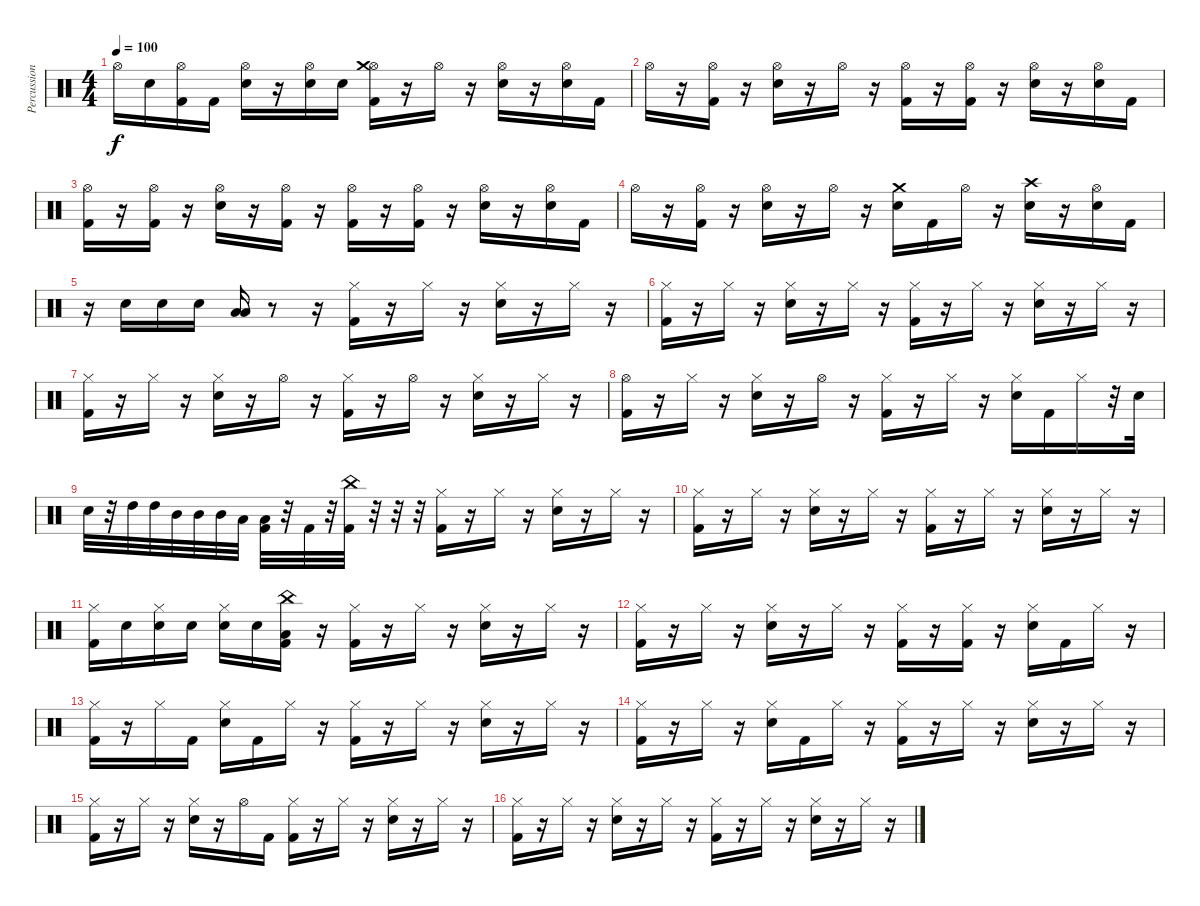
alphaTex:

\track ("Percussion" "Percussion") {instrument percussion}
\staff {score}
\articulation defaults
\ts (4 4)
\tempo 100
\clef neutral
\ks c "Hi-Hat (open)".16{dy f} "Snare (hit) 2".16
("Hi-Hat (open)" "Kick (hit) 2").16 "Kick (hit) 2".16 ("Hi-Hat (open)" "Snare (hit) 2").16 r.16 ("Hi-Hat (open)" "Snare (hit) 2").16 "Snare (hit) 2".16 ("Hi-Hat (open)" "Crash medium (hit)" "Kick (hit) 2").16 r.16 "Hi-Hat (open)".16 r.16 ("Hi-Hat (open)" "Snare (hit) 2").16 r.16 ("Hi-Hat (open)" "Snare (hit) 2").16 "Kick (hit) 2".16 |
"Hi-Hat (open)".16 r.16 ("Hi-Hat (open)" "Kick (hit) 2").16 r.16 ("Hi-Hat (open)" "Snare (hit) 2").16 r.16 "Hi-Hat (open)".16 r.16 ("Hi-Hat (open)" "Kick (hit) 2").16 r.16 ("Hi-Hat (open)" "Kick (hit) 2").16 r.16 ("Hi-Hat (open)" "Snare (hit) 2").16 r.16 ("Hi-Hat (open)" "Snare (hit) 2").16 "Kick (hit) 2".16 |
("Hi-Hat (open)" "Kick (hit) 2").16 r.16 ("Hi-Hat (open)" "Kick (hit) 2").16 r.16 ("Hi-Hat (open)" "Snare (hit) 2").16 r.16 ("Hi-Hat (open)" "Kick (hit) 2").16 r.16 ("Hi-Hat (open)" "Kick (hit) 2").16 r.16 ("Hi-Hat (open)" "Kick (hit) 2").16 r.16 ("Hi-Hat (open)" "Snare (hit) 2").16 r.16 ("Hi-Hat (open)" "Snare (hit) 2").16 "Kick (hit) 2".16 |
"Hi-Hat (open)".16 r.16 ("Hi-Hat (open)" "Kick (hit) 2").16 r.16 ("Hi-Hat (open)" "Snare (hit) 2").16 r.16 "Hi-Hat (open)".16 r.16 ("Crash medium (hit)" "Snare (hit) 2").16 "Kick (hit) 2".16 "Hi-Hat (open)".16 r.16 ("Crash high (hit)" "Snare (hit) 2").16 r.16 ("Hi-Hat (open)" "Snare (hit) 2").16 "Kick (hit) 2".16 |
r.16 "Snare (hit) 2".16 "Snare (hit) 2".16 "Snare (hit) 2".16 ("Low Tom (hit)" "Low Tom (hit)").16 r.8 r.16 ("Hi-Hat (closed)" "Kick (hit) 2").16 r.16 "Hi-Hat (closed)".16 r.16 ("Hi-Hat (closed)" "Snare (hit) 2").16 r.16 "Hi-Hat (closed)".16 r.16 |
("Hi-Hat (closed)" "Kick (hit) 2").16 r.16 "Hi-Hat (closed)".16 r.16 ("Hi-Hat (closed)" "Snare (hit) 2").16 r.16 "Hi-Hat (closed)".16 r.16 ("Hi-Hat (closed)" "Kick (hit) 2").16 r.16 "Hi-Hat (closed)".16 r.16 ("Hi-Hat (closed)" "Snare (hit) 2").16 r.16 "Hi-Hat (closed)".16 r.16 |
("Hi-Hat (closed)" "Kick (hit) 2").16 r.16 "Hi-Hat (closed)".16 r.16 ("Hi-Hat (closed)" "Snare (hit) 2").16 r.16 "Hi-Hat (open)".16 r.16 ("Hi-Hat (closed)" "Kick (hit) 2").16 r.16 "Hi-Hat (open)".16 r.16 ("Hi-Hat (closed)" "Snare (hit) 2").16 r.16 "Hi-Hat (closed)".16 r.16 |
("Hi-Hat (open)" "Kick (hit) 2").16 r.16 "Hi-Hat (closed)".16 r.16 ("Hi-Hat (closed)" "Snare (hit) 2").16 r.16 "Hi-Hat (open)".16 r.16 ("Hi-Hat (closed)" "Kick (hit) 2").16 r.16 "Hi-Hat (closed)".16 r.16 ("Hi-Hat (closed)" "Snare (hit) 2").16 "Kick (hit) 2".16 "Hi-Hat (closed)".16 r.32 "Snare (hit) 2".32 |
"Snare (hit) 2".32 r.32 "High Tom (hit)".32 "High Tom (hit)".32 "Mid Tom (hit)".32 "Mid Tom (hit)".32 "Mid Tom (hit)".32 "Low Tom (hit)".32 ("Low Tom (hit)" "Kick (hit) 2").32 r.32 "Kick (hit) 2".32 r.32 ("China (hit)" "Kick (hit) 2").32 r.32 r.32 r.32 ("Hi-Hat (closed)" "Kick (hit) 2").16 r.16 "Hi-Hat (closed)".16 r.16 ("Hi-Hat (closed)" "Snare (hit) 2").16 r.16 "Hi-Hat (closed)".16 r.16 |
("Hi-Hat (closed)" "Kick (hit) 2").16 r.16 "Hi-Hat (closed)".16 r.16 ("Hi-Hat (closed)" "Snare (hit) 2").16 r.16 "Hi-Hat (closed)".16 r.16 ("Hi-Hat (closed)" "Kick (hit) 2").16 r.16 "Hi-Hat (closed)".16 r.16 ("Hi-Hat (closed)" "Snare (hit) 2").16 r.16 "Hi-Hat (closed)".16 r.16 |
("Hi-Hat (closed)" "Kick (hit) 2").16 "Snare (hit) 2".16 ("Hi-Hat (closed)" "Snare (hit) 2").16 "Snare (hit) 2".16 ("Hi-Hat (closed)" "Snare (hit) 2").16 "Snare (hit) 2".16 ("China (hit)" "Low Tom (hit)" "Kick (hit) 2").16 r.16 ("Hi-Hat (closed)" "Kick (hit) 2").16 r.16 "Hi-Hat (closed)".16 r.16 ("Hi-Hat (closed)" "Snare (hit) 2").16 r.16 "Hi-Hat (closed)".16 r.16 |
("Hi-Hat (closed)" "Kick (hit) 2").16 r.16 "Hi-Hat (closed)".16 r.16 ("Hi-Hat (closed)" "Snare (hit) 2").16 r.16 "Hi-Hat (closed)".16 r.16 ("Hi-Hat (closed)" "Kick (hit) 2").16 r.16 ("Hi-Hat (closed)" "Kick (hit) 2").16 r.16 ("Hi-Hat (closed)" "Snare (hit) 2").16 "Kick (hit) 2".16 "Hi-Hat (closed)".16 r.16 |
("Hi-Hat (closed)" "Kick (hit) 2").16 r.16 "Hi-Hat (closed)".16 "Kick (hit) 2".16 ("Hi-Hat (closed)" "Snare (hit) 2").16 "Kick (hit) 2".16 "Hi-Hat (closed)".16 r.16 ("Hi-Hat (closed)" "Kick (hit) 2").16 r.16 "Hi-Hat (closed)".16 r.16 ("Hi-Hat (closed)" "Snare (hit) 2").16 r.16 "Hi-Hat (closed)".16 r.16 |
("Hi-Hat (closed)" "Kick (hit) 2").16 r.16 "Hi-Hat (closed)".16 r.16 ("Hi-Hat (closed)" "Snare (hit) 2").16 "Kick (hit) 2".16 "Hi-Hat (closed)".16 r.16 ("Hi-Hat (closed)" "Kick (hit) 2").16 r.16 "Hi-Hat (closed)".16 r.16 ("Hi-Hat (closed)" "Snare (hit) 2").16 r.16 "Hi-Hat (closed)".16 r.16 |
("Hi-Hat (closed)" "Kick (hit) 2").16 r.16 "Hi-Hat (closed)".16 r.16 ("Hi-Hat (closed)" "Snare (hit) 2").16 r.16 "Hi-Hat (open)".16 "Kick (hit) 2".16 ("Hi-Hat (closed)" "Kick (hit) 2").16 r.16 "Hi-Hat (closed)".16 r.16 ("Hi-Hat (closed)" "Snare (hit) 2").16 r.16 "Hi-Hat (closed)".16 r.16 |
("Hi-Hat (closed)" "Kick (hit) 2").16 r.16 "Hi-Hat (closed)".16 r.16 ("Hi-Hat (closed)" "Snare (hit) 2").16 r.16 "Hi-Hat (closed)".16 r.16 ("Hi-Hat (closed)" "Kick (hit) 2").16 r.16 "Hi-Hat (closed)".16 r.16 ("Hi-Hat (closed)" "Snare (hit) 2").16 r.16 "Hi-Hat (closed)".16 r.16
